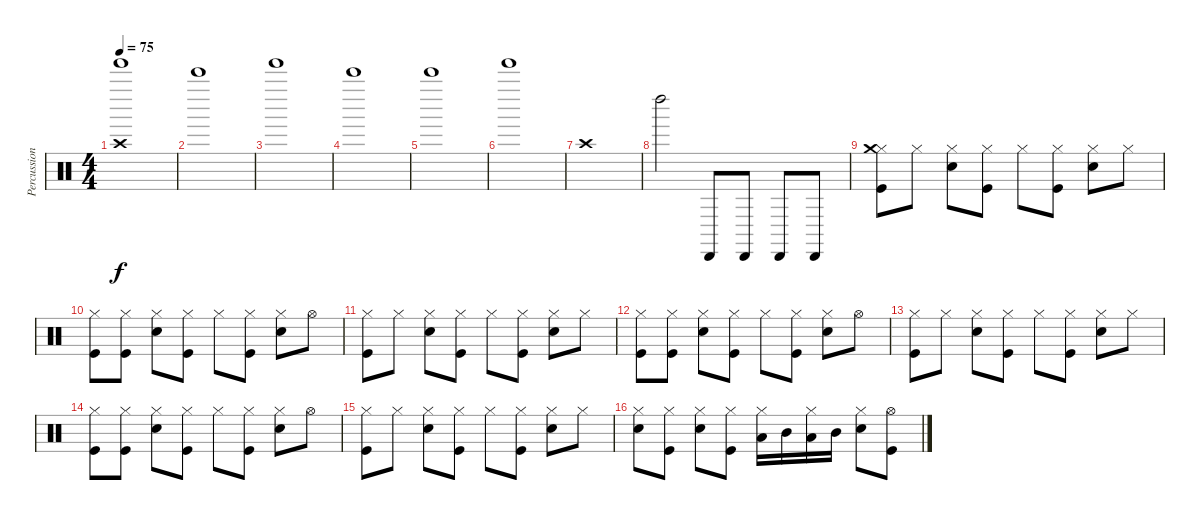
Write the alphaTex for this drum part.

\track ("Percussion" "Percussion") {instrument percussion}
\staff {score}
\articulation defaults
\ts (4 4)
\tempo 75
\clef neutral
\ks c
("Crash high (hit)" "Tinkle Bell (hit)").1{dy f volume 11} |
"Bell Tree (hit)".1 |
"Tinkle Bell (hit)".1 |
"Bell Tree (hit)".1 |
"Bell Tree (hit)".1 |
"Tinkle Bell (hit)".1 |
"Crash high (hit)".1 |
"Left Maraca (hit)".2 "Cabasa (hit)".8 "Cabasa (hit)".8 "Cabasa (hit)".8 "Cabasa (hit)".8 |
("Hi-Hat (closed)" "Kick (hit)" "Crash medium (hit)").8{volume 16} "Hi-Hat (closed)".8 ("Hi-Hat (closed)" "Electric Snare (hit)").8 ("Hi-Hat (closed)" "Kick (hit)").8 "Hi-Hat (closed)".8 ("Hi-Hat (closed)" "Kick (hit)").8 ("Hi-Hat (closed)" "Electric Snare (hit)").8 "Hi-Hat (closed)".8 |
("Hi-Hat (closed)" "Kick (hit)").8 ("Hi-Hat (closed)" "Kick (hit)").8 ("Hi-Hat (closed)" "Electric Snare (hit)").8 ("Hi-Hat (closed)" "Kick (hit)").8 "Hi-Hat (closed)".8 ("Hi-Hat (closed)" "Kick (hit)").8 ("Hi-Hat (closed)" "Electric Snare (hit)").8 "Hi-Hat (open)".8 |
("Hi-Hat (closed)" "Kick (hit)").8 "Hi-Hat (closed)".8 ("Hi-Hat (closed)" "Electric Snare (hit)").8 ("Hi-Hat (closed)" "Kick (hit)").8 "Hi-Hat (closed)".8 ("Hi-Hat (closed)" "Kick (hit)").8 ("Hi-Hat (closed)" "Electric Snare (hit)").8 "Hi-Hat (closed)".8 |
("Hi-Hat (closed)" "Kick (hit)").8 ("Hi-Hat (closed)" "Kick (hit)").8 ("Hi-Hat (closed)" "Electric Snare (hit)").8 ("Hi-Hat (closed)" "Kick (hit)").8 "Hi-Hat (closed)".8 ("Hi-Hat (closed)" "Kick (hit)").8 ("Hi-Hat (closed)" "Electric Snare (hit)").8 "Hi-Hat (open)".8 |
("Hi-Hat (closed)" "Kick (hit)").8 "Hi-Hat (closed)".8 ("Hi-Hat (closed)" "Electric Snare (hit)").8 ("Hi-Hat (closed)" "Kick (hit)").8 "Hi-Hat (closed)".8 ("Hi-Hat (closed)" "Kick (hit)").8 ("Hi-Hat (closed)" "Electric Snare (hit)").8 "Hi-Hat (closed)".8 |
("Hi-Hat (closed)" "Kick (hit)").8 ("Hi-Hat (closed)" "Kick (hit)").8 ("Hi-Hat (closed)" "Electric Snare (hit)").8 ("Hi-Hat (closed)" "Kick (hit)").8 "Hi-Hat (closed)".8 ("Hi-Hat (closed)" "Kick (hit)").8 ("Hi-Hat (closed)" "Electric Snare (hit)").8 "Hi-Hat (open)".8 |
("Hi-Hat (closed)" "Kick (hit)").8 "Hi-Hat (closed)".8 ("Hi-Hat (closed)" "Electric Snare (hit)").8 ("Hi-Hat (closed)" "Kick (hit)").8 "Hi-Hat (closed)".8 ("Hi-Hat (closed)" "Kick (hit)").8 ("Hi-Hat (closed)" "Electric Snare (hit)").8 "Hi-Hat (closed)".8 |
("Hi-Hat (closed)" "Electric Snare (hit)").8 ("Hi-Hat (closed)" "Kick (hit)").8 ("Hi-Hat (closed)" "Electric Snare (hit)").8 ("Hi-Hat (closed)" "Kick (hit)").8 ("Hi-Hat (closed)" "Low Tom (hit)").16 "Mid Tom (hit)".16 ("Hi-Hat (closed)" "Low Tom (hit)").16 "Mid Tom (hit)".16 ("Hi-Hat (closed)" "Electric Snare (hit)").8 ("Hi-Hat (open)" "Kick (hit)").8
